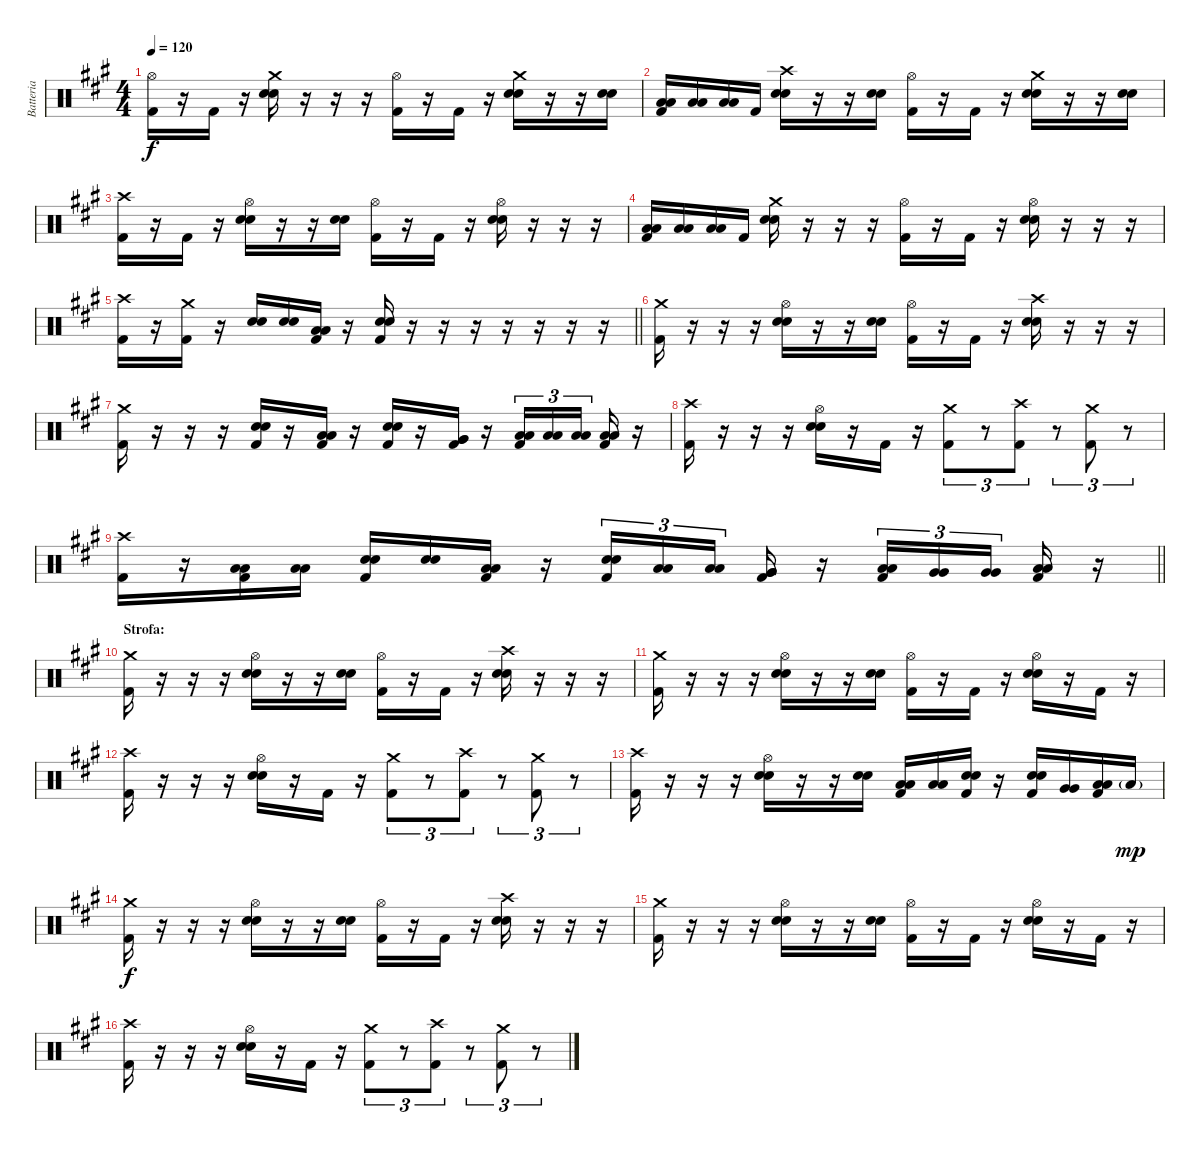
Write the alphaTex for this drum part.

\track ("Batteria" "Batteria") {instrument percussion}
\staff {score}
\articulation defaults
\ts (4 4)
\tempo 120
\clef neutral
\ks a
("Kick (hit) 2" "Hi-Hat (open)").16{dy f} r.16 "Kick (hit) 2".16 r.16 ("Snare (hit) 2" "Snare (hit) 2" "Crash medium (hit)").16 r.16 r.16 r.16 ("Kick (hit) 2" "Hi-Hat (open)").16 r.16 "Kick (hit) 2".16 r.16 ("Snare (hit) 2" "Snare (hit) 2" "Crash medium (hit)").16 r.16 r.16 ("Snare (hit) 2" "Snare (hit) 2").16 |
("Kick (hit) 2" "Low Floor Tom (hit)" "Low Floor Tom (hit)").16 ("Low Floor Tom (hit)" "Low Floor Tom (hit)").16 ("Low Floor Tom (hit)" "Low Floor Tom (hit)").16 "Kick (hit) 2".16 ("Snare (hit) 2" "Snare (hit) 2" "Crash high (hit)").16 r.16 r.16 ("Snare (hit) 2" "Snare (hit) 2").16 ("Kick (hit) 2" "Hi-Hat (open)").16 r.16 "Kick (hit) 2".16 r.16 ("Snare (hit) 2" "Snare (hit) 2" "Crash medium (hit)").16 r.16 r.16 ("Snare (hit) 2" "Snare (hit) 2").16 |
("Kick (hit) 2" "Crash high (hit)").16 r.16 "Kick (hit) 2".16 r.16 ("Snare (hit) 2" "Snare (hit) 2" "Hi-Hat (open)").16 r.16 r.16 ("Snare (hit) 2" "Snare (hit) 2").16 ("Kick (hit) 2" "Hi-Hat (open)").16 r.16 "Kick (hit) 2".16 r.16 ("Snare (hit) 2" "Snare (hit) 2" "Hi-Hat (open)").16 r.16 r.16 r.16 |
("Kick (hit) 2" "Low Floor Tom (hit)" "Low Floor Tom (hit)").16 ("Low Floor Tom (hit)" "Low Floor Tom (hit)").16 ("Low Floor Tom (hit)" "Low Floor Tom (hit)").16 "Kick (hit) 2".16 ("Snare (hit) 2" "Snare (hit) 2" "Crash medium (hit)").16 r.16 r.16 r.16 ("Kick (hit) 2" "Hi-Hat (open)").16 r.16 "Kick (hit) 2".16 r.16 ("Snare (hit) 2" "Snare (hit) 2" "Hi-Hat (open)").16 r.16 r.16 r.16 |
\barLineRight lightlight
("Kick (hit) 2" "Crash high (hit)").16 r.16 ("Kick (hit) 2" "Crash medium (hit)").16 r.16 ("Snare (hit) 2" "Snare (hit) 2").16 ("Snare (hit) 2" "Snare (hit) 2").16 ("Kick (hit) 2" "Low Tom (hit)" "Low Tom (hit)").16 r.16 ("Kick (hit) 2" "Snare (hit) 2" "Snare (hit) 2").16 r.16 r.16 r.16 r.16 r.16 r.16 r.16 |
("Kick (hit) 2" "Crash medium (hit)").16 r.16 r.16 r.16 ("Snare (hit) 2" "Snare (hit) 2" "Hi-Hat (open)").16 r.16 r.16 ("Snare (hit) 2" "Snare (hit) 2").16 ("Kick (hit) 2" "Hi-Hat (open)").16 r.16 "Kick (hit) 2".16 r.16 ("Snare (hit) 2" "Snare (hit) 2" "Crash high (hit)").16 r.16 r.16 r.16 |
("Kick (hit) 2" "Crash medium (hit)").16 r.16 r.16 r.16 ("Kick (hit) 2" "Snare (hit) 2" "Snare (hit) 2").16 r.16 ("Kick (hit) 2" "Low Tom (hit)" "Low Tom (hit)").16 r.16 ("Kick (hit) 2" "Snare (hit) 2" "Snare (hit) 2").16 r.16 ("Kick (hit) 2" "Very Low Tom (hit)" "Very Low Tom (hit)").16 r.16 ("Kick (hit) 2" "Low Floor Tom (hit)" "Low Floor Tom (hit)").16{tu (3 2)} ("Low Floor Tom (hit)" "Low Floor Tom (hit)").16{tu (3 2)} ("Low Floor Tom (hit)" "Low Floor Tom (hit)").16{tu (3 2) beam splitsecondary} ("Kick (hit) 2" "Low Floor Tom (hit)" "Low Floor Tom (hit)").16 r.16 |
("Kick (hit) 2" "Crash high (hit)").16 r.16 r.16 r.16 ("Snare (hit) 2" "Snare (hit) 2" "Hi-Hat (open)").16 r.16 "Kick (hit) 2".16 r.16 ("Kick (hit) 2" "Crash medium (hit)").8{tu (3 2)} r.8{tu (3 2)} ("Kick (hit) 2" "Crash high (hit)").8{tu (3 2)} r.8{tu (3 2)} ("Kick (hit) 2" "Crash medium (hit)").8{tu (3 2)} r.8{tu (3 2)} |
\barLineRight lightlight
("Kick (hit) 2" "Crash high (hit)").16 r.16 ("Kick (hit) 2" "Low Tom (hit)" "Low Tom (hit)").16 ("Low Tom (hit)" "Low Tom (hit)").16 ("Kick (hit) 2" "Snare (hit) 2" "Snare (hit) 2").16 ("Snare (hit) 2" "Snare (hit) 2").16 ("Kick (hit) 2" "Low Tom (hit)" "Low Tom (hit)").16 r.16 ("Kick (hit) 2" "Snare (hit) 2" "Snare (hit) 2").16{tu (3 2)} ("Low Tom (hit)" "Low Tom (hit)").16{tu (3 2)} ("Low Tom (hit)" "Low Tom (hit)").16{tu (3 2) beam splitsecondary} ("Kick (hit) 2" "Very Low Tom (hit)" "Very Low Tom (hit)").16 r.16 ("Kick (hit) 2" "Low Tom (hit)" "Low Tom (hit)").16{tu (3 2)} ("Very Low Tom (hit)" "Very Low Tom (hit)").16{tu (3 2)} ("Very Low Tom (hit)" "Very Low Tom (hit)").16{tu (3 2) beam splitsecondary} ("Kick (hit) 2" "Low Floor Tom (hit)" "Low Floor Tom (hit)").16 r.16 |
\section ("" "Strofa:")
("Kick (hit) 2" "Crash medium (hit)").16 r.16 r.16 r.16 ("Snare (hit) 2" "Snare (hit) 2" "Hi-Hat (open)").16 r.16 r.16 ("Snare (hit) 2" "Snare (hit) 2").16 ("Kick (hit) 2" "Hi-Hat (open)").16 r.16 "Kick (hit) 2".16 r.16 ("Snare (hit) 2" "Snare (hit) 2" "Crash high (hit)").16 r.16 r.16 r.16 |
("Kick (hit) 2" "Crash medium (hit)").16 r.16 r.16 r.16 ("Snare (hit) 2" "Snare (hit) 2" "Hi-Hat (open)").16 r.16 r.16 ("Snare (hit) 2" "Snare (hit) 2").16 ("Kick (hit) 2" "Hi-Hat (open)").16 r.16 "Kick (hit) 2".16 r.16 ("Snare (hit) 2" "Snare (hit) 2" "Hi-Hat (open)").16 r.16 "Kick (hit) 2".16 r.16 |
("Kick (hit) 2" "Crash high (hit)").16 r.16 r.16 r.16 ("Snare (hit) 2" "Snare (hit) 2" "Hi-Hat (open)").16 r.16 "Kick (hit) 2".16 r.16 ("Kick (hit) 2" "Crash medium (hit)").8{tu (3 2)} r.8{tu (3 2)} ("Kick (hit) 2" "Crash high (hit)").8{tu (3 2)} r.8{tu (3 2)} ("Kick (hit) 2" "Crash medium (hit)").8{tu (3 2)} r.8{tu (3 2)} |
("Kick (hit) 2" "Crash high (hit)").16 r.16 r.16 r.16 ("Snare (hit) 2" "Snare (hit) 2" "Hi-Hat (open)").16 r.16 r.16 ("Snare (hit) 2" "Snare (hit) 2").16 ("Kick (hit) 2" "Low Tom (hit)" "Low Tom (hit)").16 ("Low Tom (hit)" "Low Tom (hit)").16 ("Kick (hit) 2" "Snare (hit) 2" "Snare (hit) 2").16 r.16 ("Kick (hit) 2" "Snare (hit) 2" "Snare (hit) 2").16 ("Very Low Tom (hit)" "Very Low Tom (hit)").16 ("Kick (hit) 2" "Low Floor Tom (hit)" "Low Floor Tom (hit)").16 "Low Floor Tom (hit)"{g}.16{dy mp} |
("Kick (hit) 2" "Crash medium (hit)").16{dy f} r.16 r.16 r.16 ("Snare (hit) 2" "Snare (hit) 2" "Hi-Hat (open)").16 r.16 r.16 ("Snare (hit) 2" "Snare (hit) 2").16 ("Kick (hit) 2" "Hi-Hat (open)").16 r.16 "Kick (hit) 2".16 r.16 ("Snare (hit) 2" "Snare (hit) 2" "Crash high (hit)").16 r.16 r.16 r.16 |
("Kick (hit) 2" "Crash medium (hit)").16 r.16 r.16 r.16 ("Snare (hit) 2" "Snare (hit) 2" "Hi-Hat (open)").16 r.16 r.16 ("Snare (hit) 2" "Snare (hit) 2").16 ("Kick (hit) 2" "Hi-Hat (open)").16 r.16 "Kick (hit) 2".16 r.16 ("Snare (hit) 2" "Snare (hit) 2" "Hi-Hat (open)").16 r.16 "Kick (hit) 2".16 r.16 |
("Kick (hit) 2" "Crash high (hit)").16 r.16 r.16 r.16 ("Snare (hit) 2" "Snare (hit) 2" "Hi-Hat (open)").16 r.16 "Kick (hit) 2".16 r.16 ("Kick (hit) 2" "Crash medium (hit)").8{tu (3 2)} r.8{tu (3 2)} ("Kick (hit) 2" "Crash high (hit)").8{tu (3 2)} r.8{tu (3 2)} ("Kick (hit) 2" "Crash medium (hit)").8{tu (3 2)} r.8{tu (3 2)}
